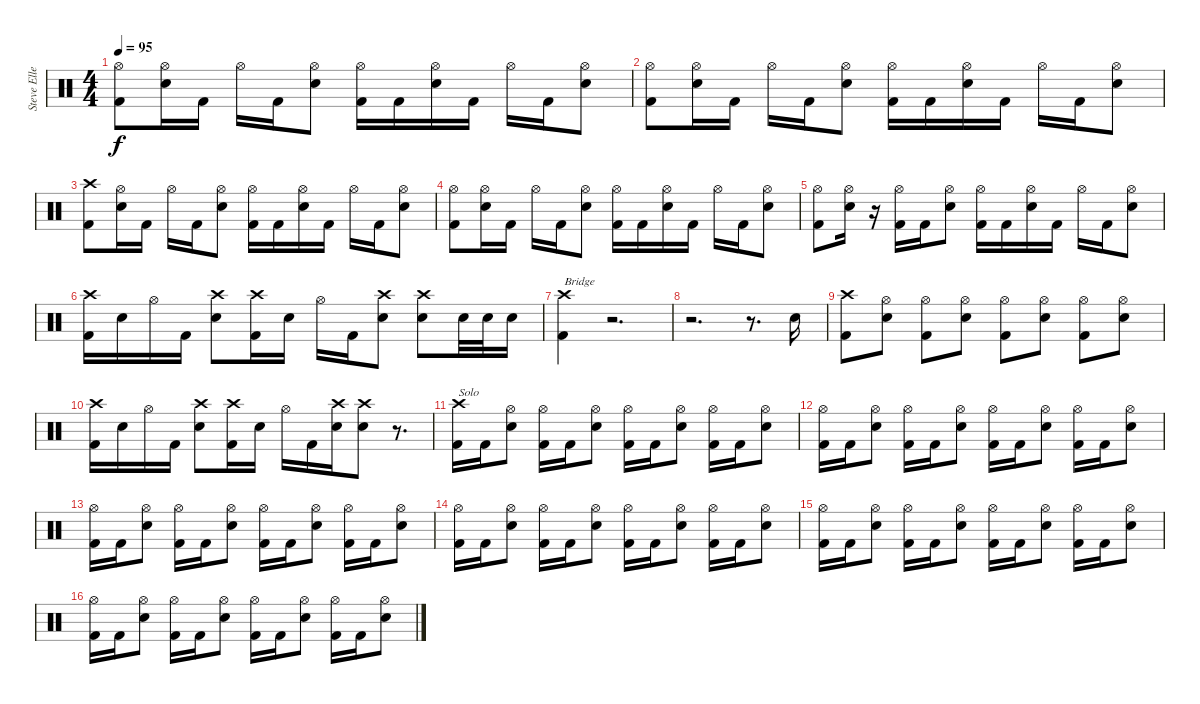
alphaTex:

\track ("Steve Ellett" "Steve Elle") {instrument percussion}
\staff {score}
\articulation defaults
\ts (4 4)
\tempo 95
\clef neutral
\ks c
("Hi-Hat (open)" "Kick (hit) 2").8{dy f} ("Hi-Hat (open)" "Snare (hit) 2").16 "Kick (hit) 2".16 "Hi-Hat (open)".16 "Kick (hit) 2".16 ("Hi-Hat (open)" "Snare (hit) 2").8 ("Hi-Hat (open)" "Kick (hit) 2").16 "Kick (hit) 2".16 ("Hi-Hat (open)" "Snare (hit) 2").16 "Kick (hit) 2".16 "Hi-Hat (open)".16 "Kick (hit) 2".16 ("Hi-Hat (open)" "Snare (hit) 2").8 |
("Hi-Hat (open)" "Kick (hit) 2").8 ("Hi-Hat (open)" "Snare (hit) 2").16 "Kick (hit) 2".16 "Hi-Hat (open)".16 "Kick (hit) 2".16 ("Hi-Hat (open)" "Snare (hit) 2").8 ("Hi-Hat (open)" "Kick (hit) 2").16 "Kick (hit) 2".16 ("Hi-Hat (open)" "Snare (hit) 2").16 "Kick (hit) 2".16 "Hi-Hat (open)".16 "Kick (hit) 2".16 ("Hi-Hat (open)" "Snare (hit) 2").8 |
("Crash high (hit)" "Kick (hit) 2").8 ("Hi-Hat (open)" "Snare (hit) 2").16 "Kick (hit) 2".16 "Hi-Hat (open)".16 "Kick (hit) 2".16 ("Hi-Hat (open)" "Snare (hit) 2").8 ("Hi-Hat (open)" "Kick (hit) 2").16 "Kick (hit) 2".16 ("Hi-Hat (open)" "Snare (hit) 2").16 "Kick (hit) 2".16 "Hi-Hat (open)".16 "Kick (hit) 2".16 ("Hi-Hat (open)" "Snare (hit) 2").8 |
("Hi-Hat (open)" "Kick (hit) 2").8 ("Hi-Hat (open)" "Snare (hit) 2").16 "Kick (hit) 2".16 "Hi-Hat (open)".16 "Kick (hit) 2".16 ("Hi-Hat (open)" "Snare (hit) 2").8 ("Hi-Hat (open)" "Kick (hit) 2").16 "Kick (hit) 2".16 ("Hi-Hat (open)" "Snare (hit) 2").16 "Kick (hit) 2".16 "Hi-Hat (open)".16 "Kick (hit) 2".16 ("Hi-Hat (open)" "Snare (hit) 2").8 |
("Hi-Hat (open)" "Kick (hit) 2").8 ("Hi-Hat (open)" "Snare (hit) 2").16 r.16 ("Hi-Hat (open)" "Kick (hit) 2").16 "Kick (hit) 2".16 ("Hi-Hat (open)" "Snare (hit) 2").8 ("Hi-Hat (open)" "Kick (hit) 2").16 "Kick (hit) 2".16 ("Hi-Hat (open)" "Snare (hit) 2").16 "Kick (hit) 2".16 "Hi-Hat (open)".16 "Kick (hit) 2".16 ("Hi-Hat (open)" "Snare (hit) 2").8 |
("Crash high (hit)" "Kick (hit) 2").16 "Snare (hit) 2".16 "Hi-Hat (open)".16 "Kick (hit) 2".16 ("Crash high (hit)" "Snare (hit) 2").8 ("Crash high (hit)" "Kick (hit) 2").16 "Snare (hit) 2".16 "Hi-Hat (open)".16 "Kick (hit) 2".16 ("Crash high (hit)" "Snare (hit) 2").8 ("Crash high (hit)" "Snare (hit) 2").8 "Snare (hit) 2".32 "Snare (hit) 2".32 "Snare (hit) 2".16 |
("Crash high (hit)" "Kick (hit) 2").4{txt "Bridge"} r.2{d} |
r.2{d} r.8{d} "Snare (hit) 2".16 |
("Crash high (hit)" "Kick (hit) 2").8 ("Hi-Hat (open)" "Snare (hit) 2").8 ("Hi-Hat (open)" "Kick (hit) 2").8 ("Hi-Hat (open)" "Snare (hit) 2").8 ("Hi-Hat (open)" "Kick (hit) 2").8 ("Hi-Hat (open)" "Snare (hit) 2").8 ("Hi-Hat (open)" "Kick (hit) 2").8 ("Hi-Hat (open)" "Snare (hit) 2").8 |
("Crash high (hit)" "Kick (hit) 2").16 "Snare (hit) 2".16 "Hi-Hat (open)".16 "Kick (hit) 2".16 ("Crash high (hit)" "Snare (hit) 2").8 ("Crash high (hit)" "Kick (hit) 2").16 "Snare (hit) 2".16 "Hi-Hat (open)".16 "Kick (hit) 2".16 ("Crash high (hit)" "Snare (hit) 2").16 ("Crash high (hit)" "Snare (hit) 2").8 r.8{d} |
("Crash high (hit)" "Kick (hit) 2").16{txt "Solo"} "Kick (hit) 2".16 ("Hi-Hat (open)" "Snare (hit) 2").8 ("Hi-Hat (open)" "Kick (hit) 2").16 "Kick (hit) 2".16 ("Hi-Hat (open)" "Snare (hit) 2").8 ("Hi-Hat (open)" "Kick (hit) 2").16 "Kick (hit) 2".16 ("Hi-Hat (open)" "Snare (hit) 2").8 ("Hi-Hat (open)" "Kick (hit) 2").16 "Kick (hit) 2".16 ("Hi-Hat (open)" "Snare (hit) 2").8 |
("Hi-Hat (open)" "Kick (hit) 2").16 "Kick (hit) 2".16 ("Hi-Hat (open)" "Snare (hit) 2").8 ("Hi-Hat (open)" "Kick (hit) 2").16 "Kick (hit) 2".16 ("Hi-Hat (open)" "Snare (hit) 2").8 ("Hi-Hat (open)" "Kick (hit) 2").16 "Kick (hit) 2".16 ("Hi-Hat (open)" "Snare (hit) 2").8 ("Hi-Hat (open)" "Kick (hit) 2").16 "Kick (hit) 2".16 ("Hi-Hat (open)" "Snare (hit) 2").8 |
("Hi-Hat (open)" "Kick (hit) 2").16 "Kick (hit) 2".16 ("Hi-Hat (open)" "Snare (hit) 2").8 ("Hi-Hat (open)" "Kick (hit) 2").16 "Kick (hit) 2".16 ("Hi-Hat (open)" "Snare (hit) 2").8 ("Hi-Hat (open)" "Kick (hit) 2").16 "Kick (hit) 2".16 ("Hi-Hat (open)" "Snare (hit) 2").8 ("Hi-Hat (open)" "Kick (hit) 2").16 "Kick (hit) 2".16 ("Hi-Hat (open)" "Snare (hit) 2").8 |
("Hi-Hat (open)" "Kick (hit) 2").16 "Kick (hit) 2".16 ("Hi-Hat (open)" "Snare (hit) 2").8 ("Hi-Hat (open)" "Kick (hit) 2").16 "Kick (hit) 2".16 ("Hi-Hat (open)" "Snare (hit) 2").8 ("Hi-Hat (open)" "Kick (hit) 2").16 "Kick (hit) 2".16 ("Hi-Hat (open)" "Snare (hit) 2").8 ("Hi-Hat (open)" "Kick (hit) 2").16 "Kick (hit) 2".16 ("Hi-Hat (open)" "Snare (hit) 2").8 |
("Hi-Hat (open)" "Kick (hit) 2").16 "Kick (hit) 2".16 ("Hi-Hat (open)" "Snare (hit) 2").8 ("Hi-Hat (open)" "Kick (hit) 2").16 "Kick (hit) 2".16 ("Hi-Hat (open)" "Snare (hit) 2").8 ("Hi-Hat (open)" "Kick (hit) 2").16 "Kick (hit) 2".16 ("Hi-Hat (open)" "Snare (hit) 2").8 ("Hi-Hat (open)" "Kick (hit) 2").16 "Kick (hit) 2".16 ("Hi-Hat (open)" "Snare (hit) 2").8 |
("Hi-Hat (open)" "Kick (hit) 2").16 "Kick (hit) 2".16 ("Hi-Hat (open)" "Snare (hit) 2").8 ("Hi-Hat (open)" "Kick (hit) 2").16 "Kick (hit) 2".16 ("Hi-Hat (open)" "Snare (hit) 2").8 ("Hi-Hat (open)" "Kick (hit) 2").16 "Kick (hit) 2".16 ("Hi-Hat (open)" "Snare (hit) 2").8 ("Hi-Hat (open)" "Kick (hit) 2").16 "Kick (hit) 2".16 ("Hi-Hat (open)" "Snare (hit) 2").8
